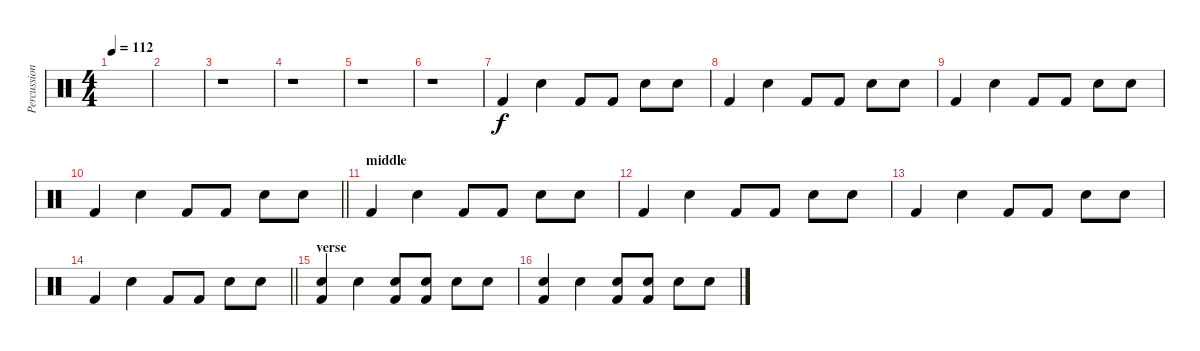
\track ("Percussions" "Percussion") {instrument percussion}
\staff {score}
\articulation defaults
\ts (4 4)
\tempo 112
\clef neutral
\ks c
|
|
r.1 |
r.1 |
r.1 |
r.1 |
"Kick (hit) 2".4 "Electric Snare (hit)".4 "Kick (hit) 2".8 "Kick (hit) 2".8 "Electric Snare (hit)".8 "Electric Snare (hit)".8 |
"Kick (hit) 2".4 "Electric Snare (hit)".4 "Kick (hit) 2".8 "Kick (hit) 2".8 "Electric Snare (hit)".8 "Electric Snare (hit)".8 |
"Kick (hit) 2".4 "Electric Snare (hit)".4 "Kick (hit) 2".8 "Kick (hit) 2".8 "Electric Snare (hit)".8 "Electric Snare (hit)".8 |
\barLineRight lightlight "Kick (hit) 2".4 "Electric Snare (hit)".4 "Kick (hit) 2".8 "Kick (hit) 2".8 "Electric Snare (hit)".8 "Electric Snare (hit)".8
|
\section ("" "middle")
"Kick (hit) 2".4 "Electric Snare (hit)".4 "Kick (hit) 2".8 "Kick (hit) 2".8 "Electric Snare (hit)".8 "Electric Snare (hit)".8 |
"Kick (hit) 2".4 "Electric Snare (hit)".4 "Kick (hit) 2".8 "Kick (hit) 2".8 "Electric Snare (hit)".8 "Electric Snare (hit)".8 |
"Kick (hit) 2".4 "Electric Snare (hit)".4 "Kick (hit) 2".8 "Kick (hit) 2".8 "Electric Snare (hit)".8 "Electric Snare (hit)".8 |
\barLineRight lightlight "Kick (hit) 2".4 "Electric Snare (hit)".4 "Kick (hit) 2".8 "Kick (hit) 2".8 "Electric Snare (hit)".8 "Electric Snare (hit)".8
|
\section ("" "verse")
("Electric Snare (hit)" "Kick (hit) 2").4 "Electric Snare (hit)".4 ("Electric Snare (hit)" "Kick (hit) 2").8 ("Electric Snare (hit)" "Kick (hit) 2").8 "Electric Snare (hit)".8 "Electric Snare (hit)".8 |
("Electric Snare (hit)" "Kick (hit) 2").4 "Electric Snare (hit)".4 ("Electric Snare (hit)" "Kick (hit) 2").8 ("Electric Snare (hit)" "Kick (hit) 2").8 "Electric Snare (hit)".8 "Electric Snare (hit)".8
